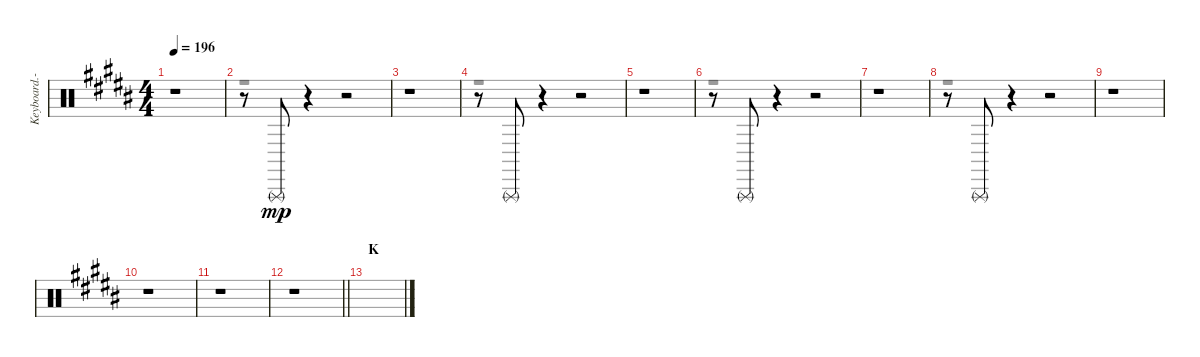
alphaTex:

\track ("Keyboard.-III" "Keyboard.-") {instrument percussion}
\staff {score}
\articulation defaults
\voice
\ts (4 4)
\tempo 196
\clef neutral
\ks b
r.1{dy mp} |
r.8 "Triangle (rnute)".8 r.4 r.2 |
r.1 |
r.8 "Triangle (rnute)".8 r.4 r.2 |
r.1 |
r.8 "Triangle (rnute)".8 r.4 r.2 |
r.1 |
r.8 "Triangle (rnute)".8 r.4 r.2 |
r.1 |
r.1 |
r.1 |
\barLineRight lightlight
r.1 |
\section ("" "K")
|
|
|
\voice
\clef neutral
\ottava regular
\simile none
\ks b
|
r.1 |
|
r.1 |
|
r.1 |
|
r.1 |
|
|
|
\barLineRight lightlight
|
|
|
|
